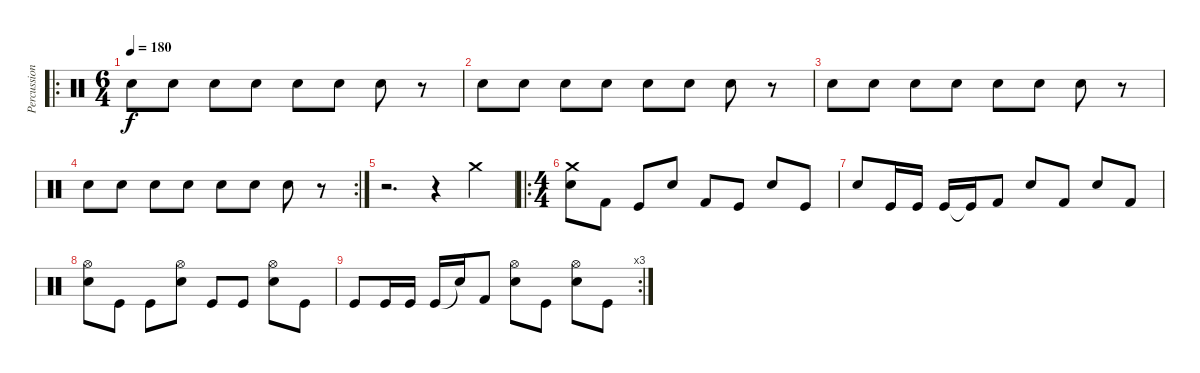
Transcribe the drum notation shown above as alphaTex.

\track ("Percussion" "Percussion") {instrument percussion}
\staff {score}
\articulation defaults
\ro
\ts (6 4)
\tempo 180
\clef neutral
\ks c "Snare (hit) 2".8{dy f} "Snare (hit) 2".8 "Snare (hit) 2".8 "Snare (hit) 2".8 "Snare (hit) 2".8 "Snare (hit) 2".8 "Snare (hit) 2".8
r.8 |
"Snare (hit) 2".8 "Snare (hit) 2".8 "Snare (hit) 2".8 "Snare (hit) 2".8 "Snare (hit) 2".8 "Snare (hit) 2".8 "Snare (hit) 2".8 r.8 |
"Snare (hit) 2".8 "Snare (hit) 2".8 "Snare (hit) 2".8 "Snare (hit) 2".8 "Snare (hit) 2".8 "Snare (hit) 2".8 "Snare (hit) 2".8 r.8 |
\rc 2 "Snare (hit) 2".8 "Snare (hit) 2".8 "Snare (hit) 2".8 "Snare (hit) 2".8 "Snare (hit) 2".8 "Snare (hit) 2".8 "Snare (hit) 2".8
r.8 |
r.2{d} r.4 "Crash medium (hit)".4 |
\ro
\ts (4 4)
("Crash medium (hit)" "Snare (hit) 2").8 "Kick (hit) 2".8 "Kick (hit)".8 "Snare (hit) 2".8 "Kick (hit) 2".8 "Kick (hit)".8 "Snare (hit) 2".8 "Kick (hit)".8 |
"Snare (hit) 2".8 "Kick (hit)".16 "Kick (hit)".16 "Kick (hit)".16 "Kick (hit)"{t}.16 "Kick (hit) 2".8 "Snare (hit) 2".8 "Kick (hit) 2".8 "Snare (hit) 2".8 "Kick (hit) 2".8 |
("Hi-Hat (open)" "Snare (hit) 2").8 "Kick (hit)".8 "Kick (hit)".8 ("Hi-Hat (open)" "Snare (hit) 2").8 "Kick (hit)".8 "Kick (hit)".8 ("Hi-Hat (open)" "Snare (hit) 2").8 "Kick (hit)".8 |
\rc 3 "Kick (hit)".8 "Kick (hit)".16 "Kick (hit)".16 "Kick (hit)".16 "Snare (hit)"{t}.16 "Kick (hit) 2".8
("Hi-Hat (open)" "Snare (hit) 2").8 "Kick (hit)".8 ("Hi-Hat (open)" "Snare (hit) 2").8 "Kick (hit)".8
